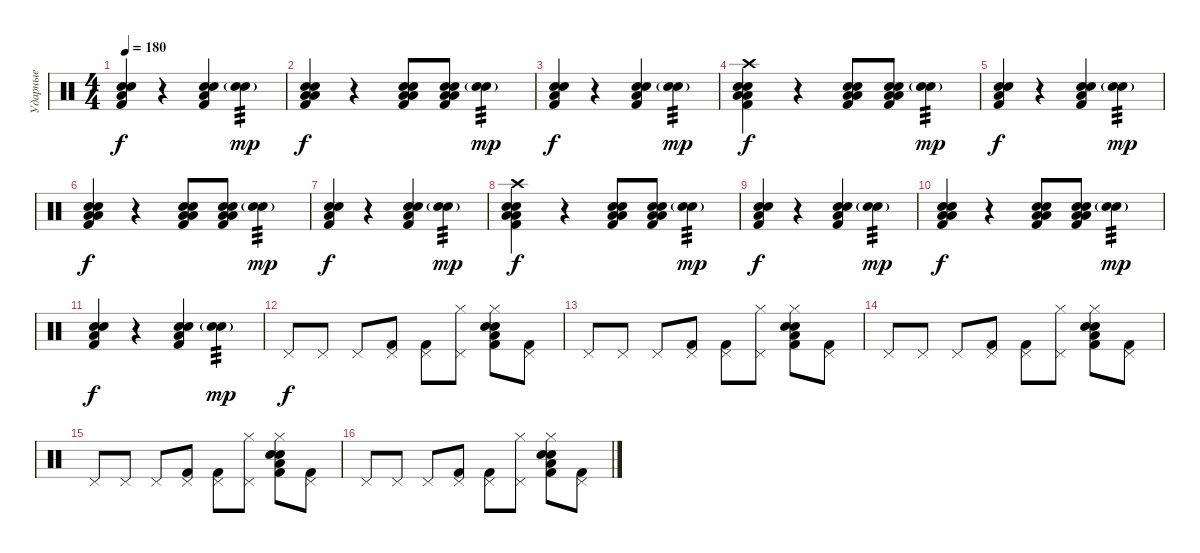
\track ("Ударные" "Ударные") {instrument percussion}
\staff {score}
\articulation defaults
\ts (4 4)
\tempo 180
\clef neutral
\ks c
("Kick (hit) 2" "Snare (hit) 2" "Electric Snare (hit)" "Low Floor Tom (hit)").4{dy f} r.4 ("Kick (hit) 2" "Snare (hit) 2" "Electric Snare (hit)" "Low Floor Tom (hit)").4 ("Snare (hit) 2" "Electric Snare (hit)"{g}).4{tp 3 dy mp} |
("Kick (hit) 2" "Snare (hit) 2" "Electric Snare (hit)" "Low Floor Tom (hit)" "Low Floor Tom (hit)").4{dy f} r.4 ("Kick (hit) 2" "Snare (hit) 2" "Electric Snare (hit)" "Low Floor Tom (hit)" "Low Floor Tom (hit)").8 ("Kick (hit) 2" "Snare (hit) 2" "Electric Snare (hit)" "Low Floor Tom (hit)" "Low Floor Tom (hit)").8 ("Snare (hit) 2" "Electric Snare (hit)"{g}).4{tp 3 dy mp} |
("Kick (hit) 2" "Snare (hit) 2" "Electric Snare (hit)" "Low Floor Tom (hit)").4{dy f} r.4 ("Kick (hit) 2" "Snare (hit) 2" "Electric Snare (hit)" "Low Floor Tom (hit)").4 ("Snare (hit) 2" "Electric Snare (hit)"{g}).4{tp 3 dy mp} |
("Crash high (hit)" "Kick (hit) 2" "Snare (hit) 2" "Electric Snare (hit)" "Low Floor Tom (hit)" "Low Floor Tom (hit)").4{dy f} r.4 ("Kick (hit) 2" "Snare (hit) 2" "Electric Snare (hit)" "Low Floor Tom (hit)" "Low Floor Tom (hit)").8 ("Kick (hit) 2" "Snare (hit) 2" "Electric Snare (hit)" "Low Floor Tom (hit)" "Low Floor Tom (hit)").8 ("Snare (hit) 2" "Electric Snare (hit)"{g}).4{tp 3 dy mp} |
("Kick (hit) 2" "Snare (hit) 2" "Electric Snare (hit)" "Low Floor Tom (hit)").4{dy f} r.4 ("Kick (hit) 2" "Snare (hit) 2" "Electric Snare (hit)" "Low Floor Tom (hit)").4 ("Snare (hit) 2" "Electric Snare (hit)"{g}).4{tp 3 dy mp} |
("Kick (hit) 2" "Snare (hit) 2" "Electric Snare (hit)" "Low Floor Tom (hit)" "Low Floor Tom (hit)").4{dy f} r.4 ("Kick (hit) 2" "Snare (hit) 2" "Electric Snare (hit)" "Low Floor Tom (hit)" "Low Floor Tom (hit)").8 ("Kick (hit) 2" "Snare (hit) 2" "Electric Snare (hit)" "Low Floor Tom (hit)" "Low Floor Tom (hit)").8 ("Snare (hit) 2" "Electric Snare (hit)"{g}).4{tp 3 dy mp} |
("Kick (hit) 2" "Snare (hit) 2" "Electric Snare (hit)" "Low Floor Tom (hit)").4{dy f} r.4 ("Kick (hit) 2" "Snare (hit) 2" "Electric Snare (hit)" "Low Floor Tom (hit)").4 ("Snare (hit) 2" "Electric Snare (hit)"{g}).4{tp 3 dy mp} |
("Crash high (hit)" "Kick (hit) 2" "Snare (hit) 2" "Electric Snare (hit)" "Low Floor Tom (hit)" "Low Floor Tom (hit)").4{dy f} r.4 ("Kick (hit) 2" "Snare (hit) 2" "Electric Snare (hit)" "Low Floor Tom (hit)" "Low Floor Tom (hit)").8 ("Kick (hit) 2" "Snare (hit) 2" "Electric Snare (hit)" "Low Floor Tom (hit)" "Low Floor Tom (hit)").8 ("Snare (hit) 2" "Electric Snare (hit)"{g}).4{tp 3 dy mp} |
("Kick (hit) 2" "Snare (hit) 2" "Electric Snare (hit)" "Low Floor Tom (hit)").4{dy f} r.4 ("Kick (hit) 2" "Snare (hit) 2" "Electric Snare (hit)" "Low Floor Tom (hit)").4 ("Snare (hit) 2" "Electric Snare (hit)"{g}).4{tp 3 dy mp} |
("Kick (hit) 2" "Snare (hit) 2" "Electric Snare (hit)" "Low Floor Tom (hit)" "Low Floor Tom (hit)").4{dy f} r.4 ("Kick (hit) 2" "Snare (hit) 2" "Electric Snare (hit)" "Low Floor Tom (hit)" "Low Floor Tom (hit)").8 ("Kick (hit) 2" "Snare (hit) 2" "Electric Snare (hit)" "Low Floor Tom (hit)" "Low Floor Tom (hit)").8 ("Snare (hit) 2" "Electric Snare (hit)"{g}).4{tp 3 dy mp} |
("Kick (hit) 2" "Snare (hit) 2" "Electric Snare (hit)" "Low Floor Tom (hit)").4{dy f} r.4 ("Kick (hit) 2" "Snare (hit) 2" "Electric Snare (hit)" "Low Floor Tom (hit)").4 ("Snare (hit) 2" "Electric Snare (hit)"{g}).4{tp 3 dy mp} |
"Pedal Hi-Hat (hit)".8{dy f} "Pedal Hi-Hat (hit)".8 "Pedal Hi-Hat (hit)".8 ("Kick (hit) 2" "Pedal Hi-Hat (hit)").8 ("Kick (hit) 2" "Pedal Hi-Hat (hit)").8 ("Hi-Hat (closed)" "Pedal Hi-Hat (hit)").8 ("Hi-Hat (closed)" "Kick (hit) 2" "Snare (hit) 2" "Electric Snare (hit)" "Low Floor Tom (hit)").8 ("Kick (hit) 2" "Pedal Hi-Hat (hit)").8 |
"Pedal Hi-Hat (hit)".8 "Pedal Hi-Hat (hit)".8 "Pedal Hi-Hat (hit)".8 ("Kick (hit) 2" "Pedal Hi-Hat (hit)").8 ("Kick (hit) 2" "Pedal Hi-Hat (hit)").8 ("Hi-Hat (closed)" "Pedal Hi-Hat (hit)").8 ("Hi-Hat (closed)" "Kick (hit) 2" "Snare (hit) 2" "Electric Snare (hit)" "Low Floor Tom (hit)").8 ("Kick (hit) 2" "Pedal Hi-Hat (hit)").8 |
"Pedal Hi-Hat (hit)".8 "Pedal Hi-Hat (hit)".8 "Pedal Hi-Hat (hit)".8 ("Kick (hit) 2" "Pedal Hi-Hat (hit)").8 ("Kick (hit) 2" "Pedal Hi-Hat (hit)").8 ("Hi-Hat (closed)" "Pedal Hi-Hat (hit)").8 ("Hi-Hat (closed)" "Kick (hit) 2" "Snare (hit) 2" "Electric Snare (hit)" "Low Floor Tom (hit)").8 ("Kick (hit) 2" "Pedal Hi-Hat (hit)").8 |
"Pedal Hi-Hat (hit)".8 "Pedal Hi-Hat (hit)".8 "Pedal Hi-Hat (hit)".8 ("Kick (hit) 2" "Pedal Hi-Hat (hit)").8 ("Kick (hit) 2" "Pedal Hi-Hat (hit)").8 ("Hi-Hat (closed)" "Pedal Hi-Hat (hit)").8 ("Hi-Hat (closed)" "Kick (hit) 2" "Snare (hit) 2" "Electric Snare (hit)" "Low Floor Tom (hit)").8 ("Kick (hit) 2" "Pedal Hi-Hat (hit)").8 |
"Pedal Hi-Hat (hit)".8 "Pedal Hi-Hat (hit)".8 "Pedal Hi-Hat (hit)".8 ("Kick (hit) 2" "Pedal Hi-Hat (hit)").8 ("Kick (hit) 2" "Pedal Hi-Hat (hit)").8 ("Hi-Hat (closed)" "Pedal Hi-Hat (hit)").8 ("Hi-Hat (closed)" "Kick (hit) 2" "Snare (hit) 2" "Electric Snare (hit)" "Low Floor Tom (hit)").8 ("Kick (hit) 2" "Pedal Hi-Hat (hit)").8
